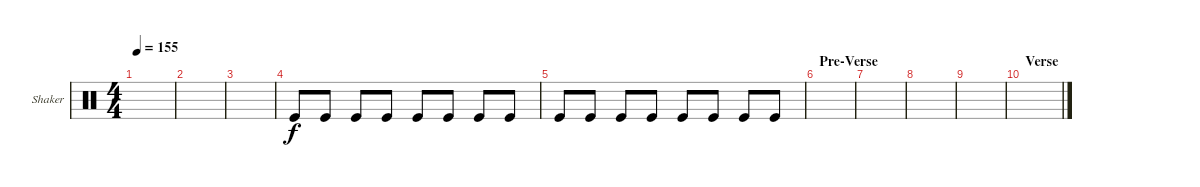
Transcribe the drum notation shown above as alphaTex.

\defaultSystemsLayout 4
\bracketExtendMode groupsimilarinstruments
\firstSystemTrackNameOrientation horizontal
\otherSystemsTrackNameOrientation horizontal
\track ("Shaker" "Shaker") {instrument percussion}
\staff {score}
\articulation defaults
\ts (4 4)
\tempo 155
\clef neutral
\scale
0.333333
\ks c
|
\scale
0.333333 |
\scale
0.333333 |
\scale
0.333333 "Kick (hit)".8 "Kick (hit)".8 "Kick (hit)".8 "Kick (hit)".8 "Kick (hit)".8 "Kick (hit)".8 "Kick (hit)".8 "Kick (hit)".8 |
\scale
0.333333 "Kick (hit)".8 "Kick (hit)".8 "Kick (hit)".8 "Kick (hit)".8 "Kick (hit)".8 "Kick (hit)".8 "Kick (hit)".8 "Kick (hit)".8 |
\section ("" "Pre-Verse")
\scale
0.333333 |
\scale
0.333333 |
\scale
0.333333 |
\scale
0.333333 |
\section ("" "Verse")
\scale
0.333333 |
\scale
0.333333 |
\scale
0.333333 |
\scale
0.333333 |
\scale
0.333333 |
\scale
0.333333 |
\scale
0.333333
